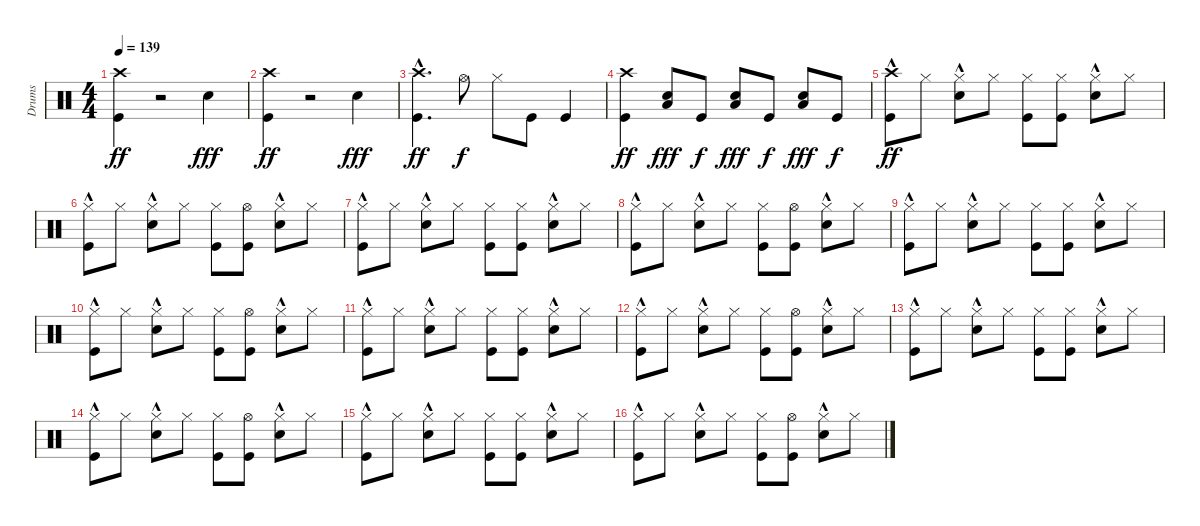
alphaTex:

\track ("Drums" "Drums") {instrument percussion}
\staff {score}
\articulation defaults
\ts (4 4)
\tempo 139
\clef neutral
\ks c
("Crash high (hit)" "Kick (hit)").4{dy ff} r.2 "Snare (hit) 2".4{dy fff} |
("Crash high (hit)" "Kick (hit)").4{dy ff} r.2 "Snare (hit) 2".4{dy fff} |
("Crash high (hit)"{hac} "Kick (hit)"{hac}).4{d dy ff} "Hi-Hat (open)".8{dy f} "Hi-Hat (closed)".8 "Kick (hit)".8 "Kick (hit)".4 |
("Kick (hit)" "Crash high (hit)").4{dy ff} ("Low Floor Tom (hit)" "Snare (hit) 2").8{dy fff} "Kick (hit)".8{dy f} ("Low Floor Tom (hit)" "Snare (hit) 2").8{dy fff} "Kick (hit)".8{dy f} ("Low Floor Tom (hit)" "Snare (hit) 2").8{dy fff} "Kick (hit)".8{dy f} |
("Crash high (hit)" "Kick (hit)"{hac}).8{dy ff} "Hi-Hat (closed)".8 ("Hi-Hat (closed)" "Snare (hit) 2"{hac}).8 "Hi-Hat (closed)".8 ("Hi-Hat (closed)" "Kick (hit)").8 ("Hi-Hat (closed)" "Kick (hit)").8 ("Hi-Hat (closed)" "Snare (hit) 2"{hac}).8 "Hi-Hat (closed)".8 |
("Hi-Hat (closed)" "Kick (hit)"{hac}).8 "Hi-Hat (closed)".8 ("Hi-Hat (closed)" "Snare (hit) 2"{hac}).8 "Hi-Hat (closed)".8 ("Hi-Hat (closed)" "Kick (hit)").8 ("Hi-Hat (open)" "Kick (hit)").8 ("Hi-Hat (closed)" "Snare (hit) 2"{hac}).8 "Hi-Hat (closed)".8 |
("Hi-Hat (closed)" "Kick (hit)"{hac}).8 "Hi-Hat (closed)".8 ("Hi-Hat (closed)" "Snare (hit) 2"{hac}).8 "Hi-Hat (closed)".8 ("Hi-Hat (closed)" "Kick (hit)").8 ("Hi-Hat (closed)" "Kick (hit)").8 ("Hi-Hat (closed)" "Snare (hit) 2"{hac}).8 "Hi-Hat (closed)".8 |
("Hi-Hat (closed)" "Kick (hit)"{hac}).8 "Hi-Hat (closed)".8 ("Hi-Hat (closed)" "Snare (hit) 2"{hac}).8 "Hi-Hat (closed)".8 ("Hi-Hat (closed)" "Kick (hit)").8 ("Hi-Hat (open)" "Kick (hit)").8 ("Hi-Hat (closed)" "Snare (hit) 2"{hac}).8 "Hi-Hat (closed)".8 |
("Hi-Hat (closed)" "Kick (hit)"{hac}).8 "Hi-Hat (closed)".8 ("Hi-Hat (closed)" "Snare (hit) 2"{hac}).8 "Hi-Hat (closed)".8 ("Hi-Hat (closed)" "Kick (hit)").8 ("Hi-Hat (closed)" "Kick (hit)").8 ("Hi-Hat (closed)" "Snare (hit) 2"{hac}).8 "Hi-Hat (closed)".8 |
("Hi-Hat (closed)" "Kick (hit)"{hac}).8 "Hi-Hat (closed)".8 ("Hi-Hat (closed)" "Snare (hit) 2"{hac}).8 "Hi-Hat (closed)".8 ("Hi-Hat (closed)" "Kick (hit)").8 ("Hi-Hat (open)" "Kick (hit)").8 ("Hi-Hat (closed)" "Snare (hit) 2"{hac}).8 "Hi-Hat (closed)".8 |
("Hi-Hat (closed)" "Kick (hit)"{hac}).8 "Hi-Hat (closed)".8 ("Hi-Hat (closed)" "Snare (hit) 2"{hac}).8 "Hi-Hat (closed)".8 ("Hi-Hat (closed)" "Kick (hit)").8 ("Hi-Hat (closed)" "Kick (hit)").8 ("Hi-Hat (closed)" "Snare (hit) 2"{hac}).8 "Hi-Hat (closed)".8 |
("Hi-Hat (closed)" "Kick (hit)"{hac}).8 "Hi-Hat (closed)".8 ("Hi-Hat (closed)" "Snare (hit) 2"{hac}).8 "Hi-Hat (closed)".8 ("Hi-Hat (closed)" "Kick (hit)").8 ("Hi-Hat (open)" "Kick (hit)").8 ("Hi-Hat (closed)" "Snare (hit) 2"{hac}).8 "Hi-Hat (closed)".8 |
("Hi-Hat (closed)" "Kick (hit)"{hac}).8 "Hi-Hat (closed)".8 ("Hi-Hat (closed)" "Snare (hit) 2"{hac}).8 "Hi-Hat (closed)".8 ("Hi-Hat (closed)" "Kick (hit)").8 ("Hi-Hat (closed)" "Kick (hit)").8 ("Hi-Hat (closed)" "Snare (hit) 2"{hac}).8 "Hi-Hat (closed)".8 |
("Hi-Hat (closed)" "Kick (hit)"{hac}).8 "Hi-Hat (closed)".8 ("Hi-Hat (closed)" "Snare (hit) 2"{hac}).8 "Hi-Hat (closed)".8 ("Hi-Hat (closed)" "Kick (hit)").8 ("Hi-Hat (open)" "Kick (hit)").8 ("Hi-Hat (closed)" "Snare (hit) 2"{hac}).8 "Hi-Hat (closed)".8 |
("Hi-Hat (closed)" "Kick (hit)"{hac}).8 "Hi-Hat (closed)".8 ("Hi-Hat (closed)" "Snare (hit) 2"{hac}).8 "Hi-Hat (closed)".8 ("Hi-Hat (closed)" "Kick (hit)").8 ("Hi-Hat (closed)" "Kick (hit)").8 ("Hi-Hat (closed)" "Snare (hit) 2"{hac}).8 "Hi-Hat (closed)".8 |
("Hi-Hat (closed)" "Kick (hit)"{hac}).8 "Hi-Hat (closed)".8 ("Hi-Hat (closed)" "Snare (hit) 2"{hac}).8 "Hi-Hat (closed)".8 ("Hi-Hat (closed)" "Kick (hit)").8 ("Hi-Hat (open)" "Kick (hit)").8 ("Hi-Hat (closed)" "Snare (hit) 2"{hac}).8 "Hi-Hat (closed)".8
